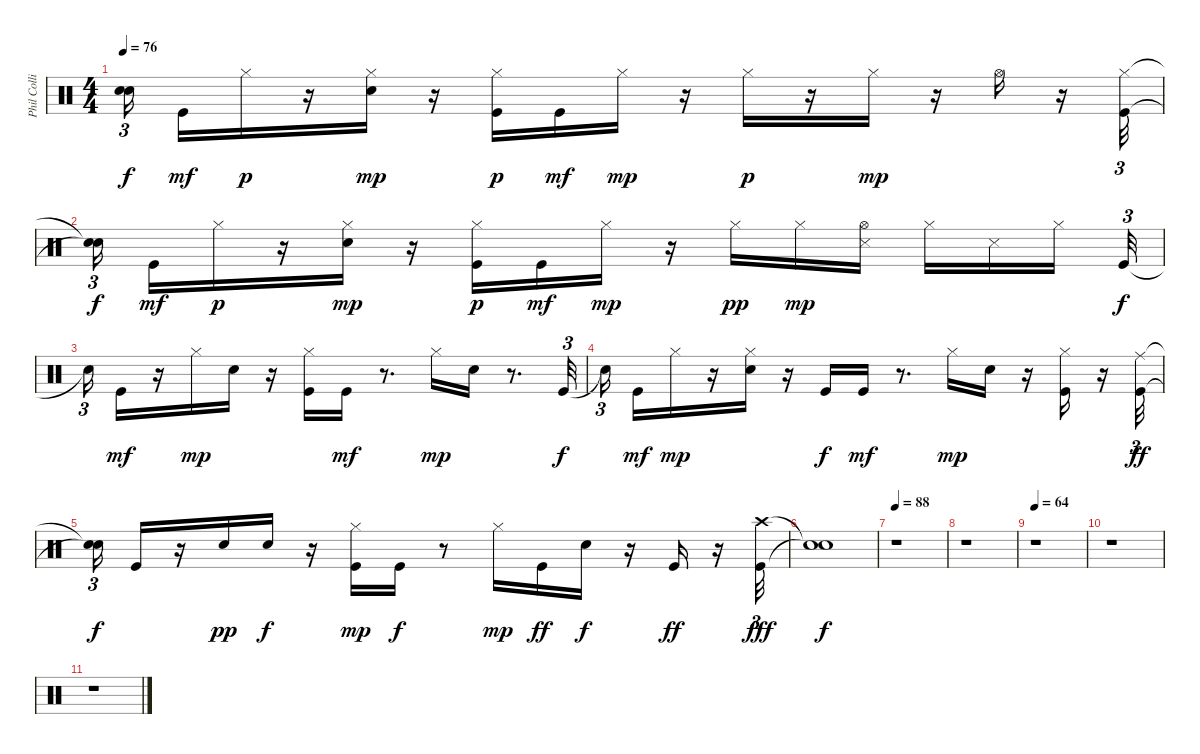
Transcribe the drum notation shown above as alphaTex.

\track ("Phil Collins" "Phil Colli") {instrument percussion}
\staff {score}
\articulation defaults
\ts (4 4)
\tempo 76
\clef neutral
\ks c
("Snare (hit)"{t} "Snare (hit)"{t}).16{tu (3 2) dy f beam splitsecondary} "Kick (hit)".16{dy mf} "Hi-Hat (closed)".16{dy p} r.16 ("Snare (hit) 2" "Hi-Hat (closed)").16{dy mp} r.16 ("Kick (hit)" "Hi-Hat (closed)").16{dy p} "Kick (hit)".16{dy mf} "Hi-Hat (closed)".16{dy mp} r.16 "Hi-Hat (closed)".16{dy p} r.16 "Hi-Hat (closed)".16{dy mp} r.16 "Hi-Hat (open)".16 r.16 ("Kick (hit)" "Hi-Hat (closed)").32{tu (3 2)} |
("Snare (hit)"{t} "Snare (hit)"{t}).16{tu (3 2) dy f beam splitsecondary} "Kick (hit)".16{dy mf} "Hi-Hat (closed)".16{dy p} r.16 ("Snare (hit) 2" "Hi-Hat (closed)").16{dy mp} r.16 ("Kick (hit)" "Hi-Hat (closed)").16{dy p} "Kick (hit)".16{dy mf} "Hi-Hat (closed)".16{dy mp} r.16 "Hi-Hat (closed)".16{dy pp} "Hi-Hat (closed)".16{dy mp} ("Snare (side stick) 3" "Hi-Hat (open)").16 "Hi-Hat (closed)".16 "Snare (side stick) 3".16 "Hi-Hat (closed)".16{beam splitsecondary} "Kick (hit)".32{tu (3 2) dy f} |
"Snare (hit)"{t}.16{tu (3 2)} "Kick (hit)".16{dy mf} r.16 "Hi-Hat (closed)".16{dy mp} "Snare (hit) 2".16 r.16 ("Kick (hit)" "Hi-Hat (closed)").16 "Kick (hit)".16{dy mf} r.8{d} "Hi-Hat (closed)".16{dy mp} "Snare (hit) 2".16 r.8{d} "Kick (hit)".32{tu (3 2) dy f} |
"Snare (hit)"{t}.16{tu (3 2) beam splitsecondary} "Kick (hit)".16{dy mf} "Hi-Hat (closed)".16{dy mp} r.16 ("Snare (hit) 2" "Hi-Hat (closed)").16 r.16 "Kick (hit)".16{dy f} "Kick (hit)".16{dy mf} r.8{d} "Hi-Hat (closed)".16{dy mp} "Snare (hit) 2".16 r.16 ("Kick (hit)" "Hi-Hat (closed)").16 r.16 ("Kick (hit)" "Ride (middle)").32{tu (3 2) dy ff} |
("Snare (hit)"{t} "Snare (hit)"{t}).16{tu (3 2) dy f} "Kick (hit)".16 r.16 "Snare (hit) 2".16{dy pp} "Snare (hit) 2".16{dy f} r.16 ("Kick (hit)" "Hi-Hat (closed)").16{dy mp} "Kick (hit)".16{dy f} r.8 "Hi-Hat (closed)".16{dy mp} "Kick (hit)".16{dy ff} "Snare (hit) 2".16{dy f} r.16 "Kick (hit)".16{dy ff} r.16 ("Crash high (hit)" "Kick (hit)").32{tu (3 2) dy fff} |
("Snare (hit)"{t} "Snare (hit)"{t}).1{dy f} |
\tempo 88
r.1 |
r.1 |
\tempo 64
r.1 |
r.1 |
r.1
